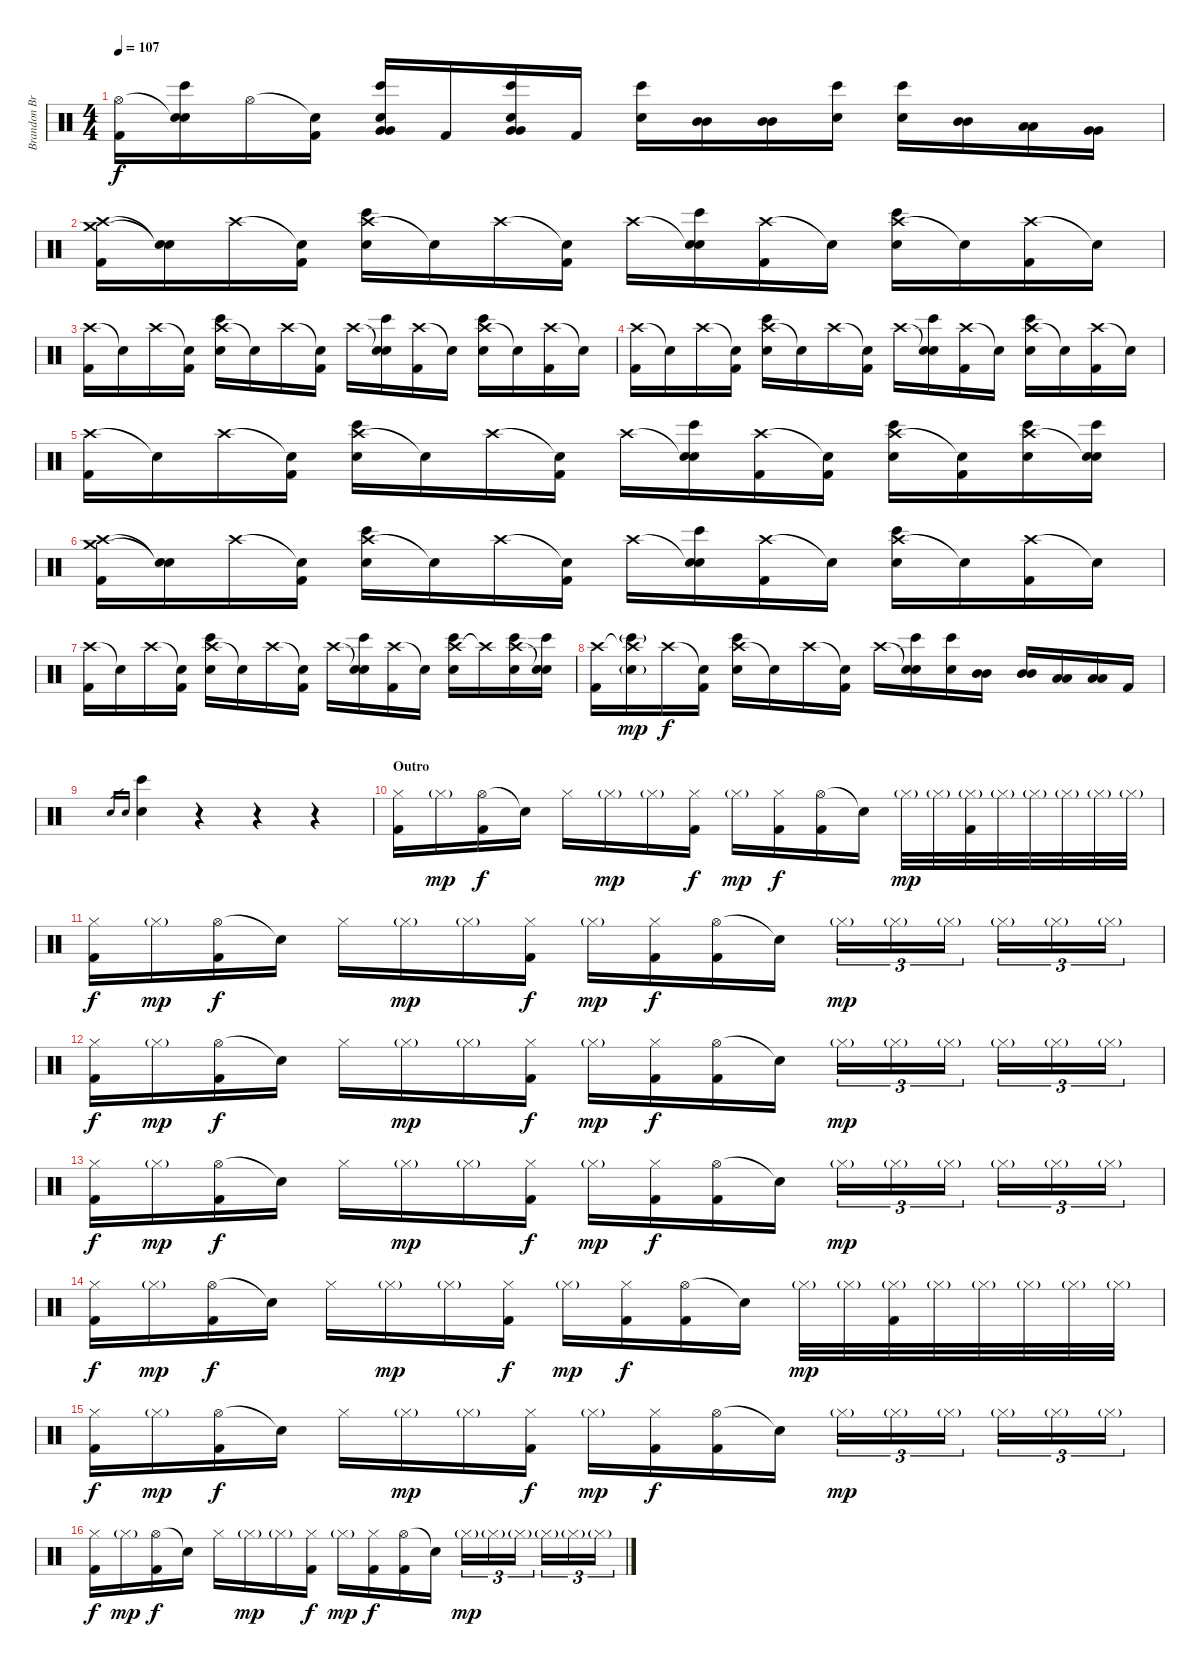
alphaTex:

\track ("Brandon Brown (Drums)" "Brandon Br") {instrument percussion}
\staff {score}
\articulation defaults
\ts (4 4)
\tempo 107
\clef neutral
\ks c
("Hi-Hat (open)" "Kick (hit) 2").16{dy f} ("Snare (hit)"{t} "Electric Snare (hit)" "Bongo High (hit)").16 "Hi-Hat (open)".16 ("Snare (hit)"{t} "Kick (hit) 2").16 ("Bongo High (hit)" "Electric Snare (hit)" "Very Low Tom (hit)" "Very Low Tom (hit)").16 "Kick (hit) 2".16 ("Bongo High (hit)" "Electric Snare (hit)" "Very Low Tom (hit)" "Very Low Tom (hit)").16 "Kick (hit) 2".16 ("Electric Snare (hit)" "Bongo High (hit)").16 ("Mid Tom (hit)" "Mid Tom (hit)").16 ("Mid Tom (hit)" "Mid Tom (hit)").16 ("Electric Snare (hit)" "Bongo High (hit)").16 ("Electric Snare (hit)" "Bongo High (hit)").16 ("Mid Tom (hit)" "Mid Tom (hit)").16 ("Low Tom (hit)" "Low Tom (hit)").16 ("Very Low Tom (hit)" "Very Low Tom (hit)").16 |
("Crash high (hit)" "Crash medium (hit)" "Kick (hit) 2").16 ("Snare (hit)"{t} "Snare (hit)"{t}).16 "Crash high (hit)".16 ("Snare (hit)"{t} "Kick (hit) 2").16 ("Crash high (hit)" "Electric Snare (hit)" "Bongo High (hit)").16 "Snare (hit)"{t}.16 "Crash high (hit)".16 ("Snare (hit)"{t} "Kick (hit) 2").16 "Crash high (hit)".16 ("Snare (hit)"{t} "Electric Snare (hit)" "Bongo High (hit)").16 ("Crash high (hit)" "Kick (hit) 2").16 "Snare (hit)"{t}.16 ("Crash high (hit)" "Electric Snare (hit)" "Bongo High (hit)").16 "Snare (hit)"{t}.16 ("Crash high (hit)" "Kick (hit) 2").16 "Snare (hit)"{t}.16 |
("Crash high (hit)" "Kick (hit) 2").16 "Snare (hit)"{t}.16 "Crash high (hit)".16 ("Snare (hit)"{t} "Kick (hit) 2").16 ("Crash high (hit)" "Electric Snare (hit)" "Bongo High (hit)").16 "Snare (hit)"{t}.16 "Crash high (hit)".16 ("Snare (hit)"{t} "Kick (hit) 2").16 "Crash high (hit)".16 ("Snare (hit)"{t} "Electric Snare (hit)" "Bongo High (hit)").16 ("Crash high (hit)" "Kick (hit) 2").16 "Snare (hit)"{t}.16 ("Crash high (hit)" "Electric Snare (hit)" "Bongo High (hit)").16 "Snare (hit)"{t}.16 ("Crash high (hit)" "Kick (hit) 2").16 "Snare (hit)"{t}.16 |
("Crash high (hit)" "Kick (hit) 2").16 "Snare (hit)"{t}.16 "Crash high (hit)".16 ("Snare (hit)"{t} "Kick (hit) 2").16 ("Crash high (hit)" "Electric Snare (hit)" "Bongo High (hit)").16 "Snare (hit)"{t}.16 "Crash high (hit)".16 ("Snare (hit)"{t} "Kick (hit) 2").16 "Crash high (hit)".16 ("Snare (hit)"{t} "Electric Snare (hit)" "Bongo High (hit)").16 ("Crash high (hit)" "Kick (hit) 2").16 "Snare (hit)"{t}.16 ("Crash high (hit)" "Electric Snare (hit)" "Bongo High (hit)").16 "Snare (hit)"{t}.16 ("Crash high (hit)" "Kick (hit) 2").16 "Snare (hit)"{t}.16 |
("Crash high (hit)" "Kick (hit) 2").16 "Snare (hit)"{t}.16 "Crash high (hit)".16 ("Snare (hit)"{t} "Kick (hit) 2").16 ("Crash high (hit)" "Electric Snare (hit)" "Bongo High (hit)").16 "Snare (hit)"{t}.16 "Crash high (hit)".16 ("Snare (hit)"{t} "Kick (hit) 2").16 "Crash high (hit)".16 ("Snare (hit)"{t} "Electric Snare (hit)" "Bongo High (hit)").16 ("Crash high (hit)" "Kick (hit) 2").16 ("Snare (hit)"{t} "Kick (hit) 2").16 ("Crash high (hit)" "Electric Snare (hit)" "Bongo High (hit)").16 ("Snare (hit)"{t} "Kick (hit) 2").16 ("Crash high (hit)" "Electric Snare (hit)" "Bongo High (hit)").16 ("Snare (hit)"{t} "Electric Snare (hit)" "Bongo High (hit)").16 |
("Crash high (hit)" "Crash medium (hit)" "Kick (hit) 2").16 ("Snare (hit)"{t} "Snare (hit)"{t}).16 "Crash high (hit)".16 ("Snare (hit)"{t} "Kick (hit) 2").16 ("Crash high (hit)" "Electric Snare (hit)" "Bongo High (hit)").16 "Snare (hit)"{t}.16 "Crash high (hit)".16 ("Snare (hit)"{t} "Kick (hit) 2").16 "Crash high (hit)".16 ("Snare (hit)"{t} "Electric Snare (hit)" "Bongo High (hit)").16 ("Crash high (hit)" "Kick (hit) 2").16 "Snare (hit)"{t}.16 ("Crash high (hit)" "Electric Snare (hit)" "Bongo High (hit)").16 "Snare (hit)"{t}.16 ("Crash high (hit)" "Kick (hit) 2").16 "Snare (hit)"{t}.16 |
("Crash high (hit)" "Kick (hit) 2").16 "Snare (hit)"{t}.16 "Crash high (hit)".16 ("Snare (hit)"{t} "Kick (hit) 2").16 ("Crash high (hit)" "Electric Snare (hit)" "Bongo High (hit)").16 "Snare (hit)"{t}.16 "Crash high (hit)".16 ("Snare (hit)"{t} "Kick (hit) 2").16 "Crash high (hit)".16 ("Snare (hit)"{t} "Electric Snare (hit)" "Bongo High (hit)").16 ("Crash high (hit)" "Kick (hit) 2").16 "Snare (hit)"{t}.16 ("Crash high (hit)" "Electric Snare (hit)" "Bongo High (hit)").16 "Crash high (hit)"{t}.16 ("Crash high (hit)" "Electric Snare (hit)" "Bongo High (hit)").16 ("Snare (hit)"{t} "Electric Snare (hit)" "Bongo High (hit)").16 |
("Crash high (hit)" "Kick (hit) 2").16 ("Crash high (hit)"{t} "Electric Snare (hit)"{g} "Bongo High (hit)"{g}).16{dy mp} "Crash high (hit)".16{dy f} ("Snare (hit)"{t} "Kick (hit) 2").16 ("Crash high (hit)" "Electric Snare (hit)" "Bongo High (hit)").16 "Snare (hit)"{t}.16 "Crash high (hit)".16 ("Snare (hit)"{t} "Kick (hit) 2").16 "Crash high (hit)".16 ("Snare (hit)"{t} "Electric Snare (hit)" "Bongo High (hit)").16 ("Electric Snare (hit)" "Bongo High (hit)").16 ("Mid Tom (hit)" "Mid Tom (hit)").16 ("Mid Tom (hit)" "Mid Tom (hit)").16 ("Low Tom (hit)" "Low Tom (hit)").16 ("Low Tom (hit)" "Low Tom (hit)").16 "Kick (hit) 2".16 |
"Electric Snare (hit)".16{gr} "Snare (hit)".16{gr} ("Electric Snare (hit)" "Bongo High (hit)").4 r.4 r.4 r.4 |
\section ("" "Outro")
("Hi-Hat (closed)" "Kick (hit) 2").16 "Hi-Hat (closed)"{g}.16{dy mp} ("Hi-Hat (open)" "Kick (hit) 2").16{dy f} "Snare (hit)"{t}.16 "Hi-Hat (closed)".16 "Hi-Hat (closed)"{g}.16{dy mp} "Hi-Hat (closed)"{g}.16 ("Hi-Hat (closed)" "Kick (hit) 2").16{dy f} "Hi-Hat (closed)"{g}.16{dy mp} ("Hi-Hat (closed)" "Kick (hit) 2").16{dy f} ("Hi-Hat (open)" "Kick (hit) 2").16 "Snare (hit)"{t}.16 "Hi-Hat (closed)"{g}.32{dy mp} "Hi-Hat (closed)"{g}.32 ("Hi-Hat (closed)"{g} "Kick (hit) 2").32 "Hi-Hat (closed)"{g}.32 "Hi-Hat (closed)"{g}.32 "Hi-Hat (closed)"{g}.32 "Hi-Hat (closed)"{g}.32 "Hi-Hat (closed)"{g}.32 |
("Hi-Hat (closed)" "Kick (hit) 2").16{dy f} "Hi-Hat (closed)"{g}.16{dy mp} ("Hi-Hat (open)" "Kick (hit) 2").16{dy f} "Snare (hit)"{t}.16 "Hi-Hat (closed)".16 "Hi-Hat (closed)"{g}.16{dy mp} "Hi-Hat (closed)"{g}.16 ("Hi-Hat (closed)" "Kick (hit) 2").16{dy f} "Hi-Hat (closed)"{g}.16{dy mp} ("Hi-Hat (closed)" "Kick (hit) 2").16{dy f} ("Hi-Hat (open)" "Kick (hit) 2").16 "Snare (hit)"{t}.16 "Hi-Hat (closed)"{g}.16{tu (3 2) dy mp} "Hi-Hat (closed)"{g}.16{tu (3 2)} "Hi-Hat (closed)"{g}.16{tu (3 2)} "Hi-Hat (closed)"{g}.16{tu (3 2)} "Hi-Hat (closed)"{g}.16{tu (3 2)} "Hi-Hat (closed)"{g}.16{tu (3 2)} |
("Hi-Hat (closed)" "Kick (hit) 2").16{dy f} "Hi-Hat (closed)"{g}.16{dy mp} ("Hi-Hat (open)" "Kick (hit) 2").16{dy f} "Snare (hit)"{t}.16 "Hi-Hat (closed)".16 "Hi-Hat (closed)"{g}.16{dy mp} "Hi-Hat (closed)"{g}.16 ("Hi-Hat (closed)" "Kick (hit) 2").16{dy f} "Hi-Hat (closed)"{g}.16{dy mp} ("Hi-Hat (closed)" "Kick (hit) 2").16{dy f} ("Hi-Hat (open)" "Kick (hit) 2").16 "Snare (hit)"{t}.16 "Hi-Hat (closed)"{g}.16{tu (3 2) dy mp} "Hi-Hat (closed)"{g}.16{tu (3 2)} "Hi-Hat (closed)"{g}.16{tu (3 2)} "Hi-Hat (closed)"{g}.16{tu (3 2)} "Hi-Hat (closed)"{g}.16{tu (3 2)} "Hi-Hat (closed)"{g}.16{tu (3 2)} |
("Hi-Hat (closed)" "Kick (hit) 2").16{dy f} "Hi-Hat (closed)"{g}.16{dy mp} ("Hi-Hat (open)" "Kick (hit) 2").16{dy f} "Snare (hit)"{t}.16 "Hi-Hat (closed)".16 "Hi-Hat (closed)"{g}.16{dy mp} "Hi-Hat (closed)"{g}.16 ("Hi-Hat (closed)" "Kick (hit) 2").16{dy f} "Hi-Hat (closed)"{g}.16{dy mp} ("Hi-Hat (closed)" "Kick (hit) 2").16{dy f} ("Hi-Hat (open)" "Kick (hit) 2").16 "Snare (hit)"{t}.16 "Hi-Hat (closed)"{g}.16{tu (3 2) dy mp} "Hi-Hat (closed)"{g}.16{tu (3 2)} "Hi-Hat (closed)"{g}.16{tu (3 2)} "Hi-Hat (closed)"{g}.16{tu (3 2)} "Hi-Hat (closed)"{g}.16{tu (3 2)} "Hi-Hat (closed)"{g}.16{tu (3 2)} |
("Hi-Hat (closed)" "Kick (hit) 2").16{dy f} "Hi-Hat (closed)"{g}.16{dy mp} ("Hi-Hat (open)" "Kick (hit) 2").16{dy f} "Snare (hit)"{t}.16 "Hi-Hat (closed)".16 "Hi-Hat (closed)"{g}.16{dy mp} "Hi-Hat (closed)"{g}.16 ("Hi-Hat (closed)" "Kick (hit) 2").16{dy f} "Hi-Hat (closed)"{g}.16{dy mp} ("Hi-Hat (closed)" "Kick (hit) 2").16{dy f} ("Hi-Hat (open)" "Kick (hit) 2").16 "Snare (hit)"{t}.16 "Hi-Hat (closed)"{g}.32{dy mp} "Hi-Hat (closed)"{g}.32 ("Hi-Hat (closed)"{g} "Kick (hit) 2").32 "Hi-Hat (closed)"{g}.32 "Hi-Hat (closed)"{g}.32 "Hi-Hat (closed)"{g}.32 "Hi-Hat (closed)"{g}.32 "Hi-Hat (closed)"{g}.32 |
("Hi-Hat (closed)" "Kick (hit) 2").16{dy f} "Hi-Hat (closed)"{g}.16{dy mp} ("Hi-Hat (open)" "Kick (hit) 2").16{dy f} "Snare (hit)"{t}.16 "Hi-Hat (closed)".16 "Hi-Hat (closed)"{g}.16{dy mp} "Hi-Hat (closed)"{g}.16 ("Hi-Hat (closed)" "Kick (hit) 2").16{dy f} "Hi-Hat (closed)"{g}.16{dy mp} ("Hi-Hat (closed)" "Kick (hit) 2").16{dy f} ("Hi-Hat (open)" "Kick (hit) 2").16 "Snare (hit)"{t}.16 "Hi-Hat (closed)"{g}.16{tu (3 2) dy mp} "Hi-Hat (closed)"{g}.16{tu (3 2)} "Hi-Hat (closed)"{g}.16{tu (3 2)} "Hi-Hat (closed)"{g}.16{tu (3 2)} "Hi-Hat (closed)"{g}.16{tu (3 2)} "Hi-Hat (closed)"{g}.16{tu (3 2)} |
("Hi-Hat (closed)" "Kick (hit) 2").16{dy f} "Hi-Hat (closed)"{g}.16{dy mp} ("Hi-Hat (open)" "Kick (hit) 2").16{dy f} "Snare (hit)"{t}.16 "Hi-Hat (closed)".16 "Hi-Hat (closed)"{g}.16{dy mp} "Hi-Hat (closed)"{g}.16 ("Hi-Hat (closed)" "Kick (hit) 2").16{dy f} "Hi-Hat (closed)"{g}.16{dy mp} ("Hi-Hat (closed)" "Kick (hit) 2").16{dy f} ("Hi-Hat (open)" "Kick (hit) 2").16 "Snare (hit)"{t}.16 "Hi-Hat (closed)"{g}.16{tu (3 2) dy mp} "Hi-Hat (closed)"{g}.16{tu (3 2)} "Hi-Hat (closed)"{g}.16{tu (3 2)} "Hi-Hat (closed)"{g}.16{tu (3 2)} "Hi-Hat (closed)"{g}.16{tu (3 2)} "Hi-Hat (closed)"{g}.16{tu (3 2)}
